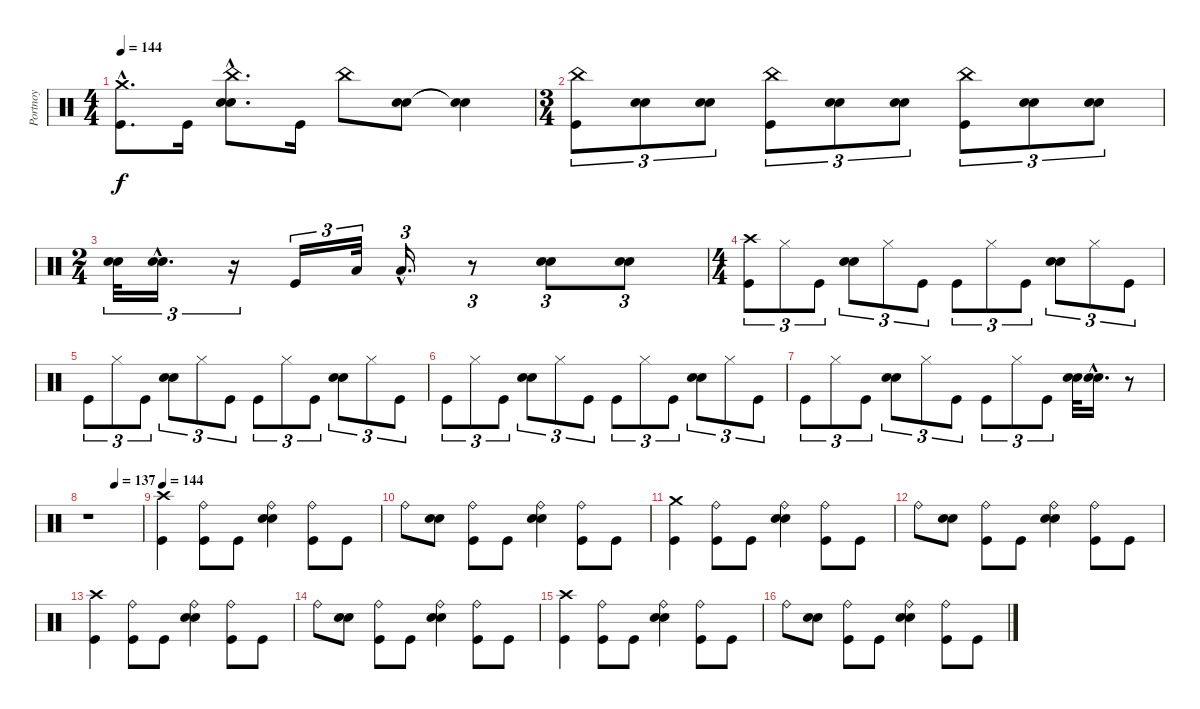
\track ("Portnoy" "Portnoy") {instrument percussion}
\staff {score}
\articulation defaults
\ts (4 4)
\tempo 144
\clef neutral
\ks c
("Crash medium (hit)"{hac} "Kick (hit)"{hac}).8{d dy f} "Kick (hit)".16 ("China (hit)"{hac} "Snare (hit) 2"{hac} "Electric Snare (hit)"{hac}).8{d} "Kick (hit)".16 "China (hit)".8 ("Snare (hit) 2" "Electric Snare (hit)").8 ("Snare (hit)"{t} "Snare (hit)"{t}).4 |
\ts (3 4)
("China (hit)" "Kick (hit)").8{tu (3 2)} ("Snare (hit) 2" "Electric Snare (hit)").8{tu (3 2)} ("Snare (hit) 2" "Electric Snare (hit)").8{tu (3 2)} ("China (hit)" "Kick (hit)").8{tu (3 2)} ("Snare (hit) 2" "Electric Snare (hit)").8{tu (3 2)} ("Snare (hit) 2" "Electric Snare (hit)").8{tu (3 2)} ("China (hit)" "Kick (hit)").8{tu (3 2)} ("Snare (hit) 2" "Electric Snare (hit)").8{tu (3 2)} ("Snare (hit) 2" "Electric Snare (hit)").8{tu (3 2)} |
\ts (2 4)
("Snare (hit) 2" "Electric Snare (hit)").32{tu (3 2)} ("Snare (hit) 2"{hac} "Electric Snare (hit)"{hac}).16{d tu (3 2)} r.16{tu (3 2)} "Kick (hit)".16{tu (3 2)} "Low Tom (hit)".32{tu (3 2)} "Low Tom (hit)"{hac}.16{d tu (3 2)} r.8{tu (3 2)} ("Snare (hit) 2" "Electric Snare (hit)").8{tu (3 2)} ("Snare (hit) 2" "Electric Snare (hit)").8{tu (3 2)} |
\ts (4 4)
("Crash high (hit)" "Kick (hit)").8{tu (3 2)} "Hi-Hat (closed)".8{tu (3 2)} "Kick (hit)".8{tu (3 2)} ("Snare (hit) 2" "Electric Snare (hit)").8{tu (3 2)} "Hi-Hat (closed)".8{tu (3 2)} "Kick (hit)".8{tu (3 2)} "Kick (hit)".8{tu (3 2)} "Hi-Hat (closed)".8{tu (3 2)} "Kick (hit)".8{tu (3 2)} ("Snare (hit) 2" "Electric Snare (hit)").8{tu (3 2)} "Hi-Hat (closed)".8{tu (3 2)} "Kick (hit)".8{tu (3 2)} |
"Kick (hit)".8{tu (3 2)} "Hi-Hat (closed)".8{tu (3 2)} "Kick (hit)".8{tu (3 2)} ("Snare (hit) 2" "Electric Snare (hit)").8{tu (3 2)} "Hi-Hat (closed)".8{tu (3 2)} "Kick (hit)".8{tu (3 2)} "Kick (hit)".8{tu (3 2)} "Hi-Hat (closed)".8{tu (3 2)} "Kick (hit)".8{tu (3 2)} ("Snare (hit) 2" "Electric Snare (hit)").8{tu (3 2)} "Hi-Hat (closed)".8{tu (3 2)} "Kick (hit)".8{tu (3 2)} |
"Kick (hit)".8{tu (3 2)} "Hi-Hat (closed)".8{tu (3 2)} "Kick (hit)".8{tu (3 2)} ("Snare (hit) 2" "Electric Snare (hit)").8{tu (3 2)} "Hi-Hat (closed)".8{tu (3 2)} "Kick (hit)".8{tu (3 2)} "Kick (hit)".8{tu (3 2)} "Hi-Hat (closed)".8{tu (3 2)} "Kick (hit)".8{tu (3 2)} ("Snare (hit) 2" "Electric Snare (hit)").8{tu (3 2)} "Hi-Hat (closed)".8{tu (3 2)} "Kick (hit)".8{tu (3 2)} |
"Kick (hit)".8{tu (3 2)} "Hi-Hat (closed)".8{tu (3 2)} "Kick (hit)".8{tu (3 2)} ("Snare (hit) 2" "Electric Snare (hit)").8{tu (3 2)} "Hi-Hat (closed)".8{tu (3 2)} "Kick (hit)".8{tu (3 2)} "Kick (hit)".8{tu (3 2)} "Hi-Hat (closed)".8{tu (3 2)} "Kick (hit)".8{tu (3 2)} ("Snare (hit) 2" "Electric Snare (hit)").32 ("Snare (hit) 2"{hac} "Electric Snare (hit)"{hac}).16{d} r.8 |
\tempo (137 0.5)
r.1 |
\tempo 144
("Crash high (hit)" "Kick (hit)").4 ("Ride (bell)" "Kick (hit)").8 "Kick (hit)".8 ("Ride (bell)" "Snare (hit) 2" "Electric Snare (hit)").4 ("Ride (bell)" "Kick (hit)").8 "Kick (hit)".8 |
"Ride (bell)".8 ("Snare (hit) 2" "Electric Snare (hit)").8 ("Ride (bell)" "Kick (hit)").8 "Kick (hit)".8 ("Ride (bell)" "Snare (hit) 2" "Electric Snare (hit)").4 ("Ride (bell)" "Kick (hit)").8 "Kick (hit)".8 |
("Crash medium (hit)" "Kick (hit)").4 ("Ride (bell)" "Kick (hit)").8 "Kick (hit)".8 ("Ride (bell)" "Snare (hit) 2" "Electric Snare (hit)").4 ("Ride (bell)" "Kick (hit)").8 "Kick (hit)".8 |
"Ride (bell)".8 ("Snare (hit) 2" "Electric Snare (hit)").8 ("Ride (bell)" "Kick (hit)").8 "Kick (hit)".8 ("Ride (bell)" "Snare (hit) 2" "Electric Snare (hit)").4 ("Ride (bell)" "Kick (hit)").8 "Kick (hit)".8 |
("Crash high (hit)" "Kick (hit)").4 ("Ride (bell)" "Kick (hit)").8 "Kick (hit)".8 ("Ride (bell)" "Snare (hit) 2" "Electric Snare (hit)").4 ("Ride (bell)" "Kick (hit)").8 "Kick (hit)".8 |
"Ride (bell)".8 ("Snare (hit) 2" "Electric Snare (hit)").8 ("Ride (bell)" "Kick (hit)").8 "Kick (hit)".8 ("Ride (bell)" "Snare (hit) 2" "Electric Snare (hit)").4 ("Ride (bell)" "Kick (hit)").8 "Kick (hit)".8 |
("Crash high (hit)" "Kick (hit)").4 ("Ride (bell)" "Kick (hit)").8 "Kick (hit)".8 ("Ride (bell)" "Snare (hit) 2" "Electric Snare (hit)").4 ("Ride (bell)" "Kick (hit)").8 "Kick (hit)".8 |
"Ride (bell)".8 ("Snare (hit) 2" "Electric Snare (hit)").8 ("Ride (bell)" "Kick (hit)").8 "Kick (hit)".8 ("Ride (bell)" "Snare (hit) 2" "Electric Snare (hit)").4 ("Ride (bell)" "Kick (hit)").8 "Kick (hit)".8
